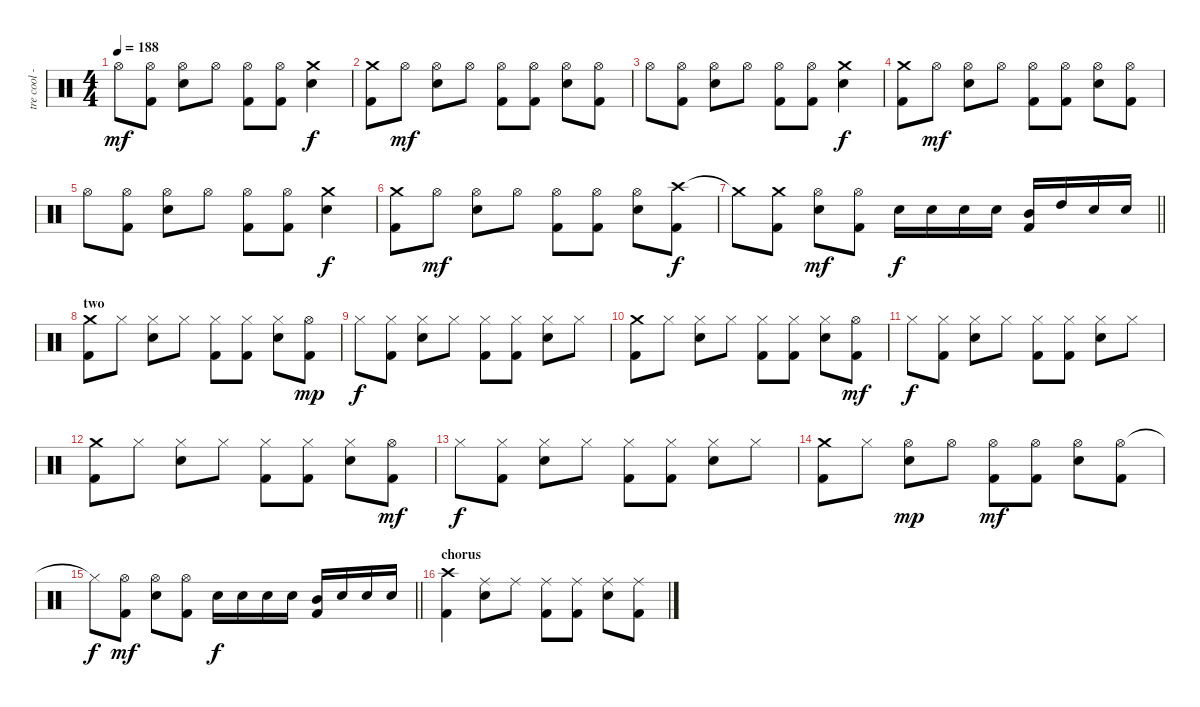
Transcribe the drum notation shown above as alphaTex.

\track ("tre cool - drums" "tre cool -") {instrument percussion}
\staff {score}
\articulation defaults
\ts (4 4)
\tempo 188
\clef neutral
\ks c "Hi-Hat (open)".8{dy mf}
("Hi-Hat (open)" "Kick (hit) 2").8 ("Hi-Hat (open)" "Electric Snare (hit)").8 "Hi-Hat (open)".8 ("Hi-Hat (open)" "Kick (hit) 2").8 ("Hi-Hat (open)" "Kick (hit) 2").8 ("Crash medium (hit)" "Electric Snare (hit)").4{dy f} |
("Crash medium (hit)" "Kick (hit) 2").8 "Hi-Hat (open)".8{dy mf} ("Hi-Hat (open)" "Electric Snare (hit)").8 "Hi-Hat (open)".8 ("Hi-Hat (open)" "Kick (hit) 2").8 ("Hi-Hat (open)" "Kick (hit) 2").8 ("Hi-Hat (open)" "Electric Snare (hit)").8 ("Hi-Hat (open)" "Kick (hit) 2").8 |
"Hi-Hat (open)".8 ("Hi-Hat (open)" "Kick (hit) 2").8 ("Hi-Hat (open)" "Electric Snare (hit)").8 "Hi-Hat (open)".8 ("Hi-Hat (open)" "Kick (hit) 2").8 ("Hi-Hat (open)" "Kick (hit) 2").8 ("Crash medium (hit)" "Electric Snare (hit)").4{dy f} |
("Crash medium (hit)" "Kick (hit) 2").8 "Hi-Hat (open)".8{dy mf} ("Hi-Hat (open)" "Electric Snare (hit)").8 "Hi-Hat (open)".8 ("Hi-Hat (open)" "Kick (hit) 2").8 ("Hi-Hat (open)" "Kick (hit) 2").8 ("Hi-Hat (open)" "Electric Snare (hit)").8 ("Hi-Hat (open)" "Kick (hit) 2").8 |
"Hi-Hat (open)".8 ("Hi-Hat (open)" "Kick (hit) 2").8 ("Hi-Hat (open)" "Electric Snare (hit)").8 "Hi-Hat (open)".8 ("Hi-Hat (open)" "Kick (hit) 2").8 ("Hi-Hat (open)" "Kick (hit) 2").8 ("Crash medium (hit)" "Electric Snare (hit)").4{dy f} |
("Crash medium (hit)" "Kick (hit) 2").8 "Hi-Hat (open)".8{dy mf} ("Hi-Hat (open)" "Electric Snare (hit)").8 "Hi-Hat (open)".8 ("Hi-Hat (open)" "Kick (hit) 2").8 ("Hi-Hat (open)" "Kick (hit) 2").8 ("Hi-Hat (open)" "Electric Snare (hit)").8 ("Crash high (hit)" "Kick (hit) 2").8{dy f} |
\barLineRight lightlight "Crash medium (hit)"{t}.8
("Crash medium (hit)" "Kick (hit) 2").8 ("Hi-Hat (open)" "Electric Snare (hit)").8{dy mf} ("Hi-Hat (open)" "Kick (hit) 2").8 "Electric Snare (hit)".16{dy f} "Electric Snare (hit)".16 "Electric Snare (hit)".16 "Electric Snare (hit)".16 ("Mid Tom (hit)" "Kick (hit) 2").16 "High Tom (hit)".16 "Electric Snare (hit)".16 "Electric Snare (hit)".16 |
\section ("" "two")
("Crash medium (hit)" "Kick (hit) 2").8 "Hi-Hat (closed)".8 ("Hi-Hat (closed)" "Electric Snare (hit)").8 "Hi-Hat (closed)".8 ("Hi-Hat (closed)" "Kick (hit) 2").8 ("Hi-Hat (closed)" "Kick (hit) 2").8 ("Hi-Hat (closed)" "Electric Snare (hit)").8 ("Hi-Hat (open)" "Kick (hit) 2").8{dy mp} |
"Hi-Hat (closed)".8{dy f} ("Hi-Hat (closed)" "Kick (hit) 2").8 ("Hi-Hat (closed)" "Electric Snare (hit)").8 "Hi-Hat (closed)".8 ("Hi-Hat (closed)" "Kick (hit) 2").8 ("Hi-Hat (closed)" "Kick (hit) 2").8 ("Hi-Hat (closed)" "Electric Snare (hit)").8 "Hi-Hat (closed)".8 |
("Crash medium (hit)" "Kick (hit) 2").8 "Hi-Hat (closed)".8 ("Hi-Hat (closed)" "Electric Snare (hit)").8 "Hi-Hat (closed)".8 ("Hi-Hat (closed)" "Kick (hit) 2").8 ("Hi-Hat (closed)" "Kick (hit) 2").8 ("Hi-Hat (closed)" "Electric Snare (hit)").8 ("Hi-Hat (open)" "Kick (hit) 2").8{dy mf} |
"Hi-Hat (closed)".8{dy f} ("Hi-Hat (closed)" "Kick (hit) 2").8 ("Hi-Hat (closed)" "Electric Snare (hit)").8 "Hi-Hat (closed)".8 ("Hi-Hat (closed)" "Kick (hit) 2").8 ("Hi-Hat (closed)" "Kick (hit) 2").8 ("Hi-Hat (closed)" "Electric Snare (hit)").8 "Hi-Hat (closed)".8 |
("Crash medium (hit)" "Kick (hit) 2").8 "Hi-Hat (closed)".8 ("Hi-Hat (closed)" "Electric Snare (hit)").8 "Hi-Hat (closed)".8 ("Hi-Hat (closed)" "Kick (hit) 2").8 ("Hi-Hat (closed)" "Kick (hit) 2").8 ("Hi-Hat (closed)" "Electric Snare (hit)").8 ("Hi-Hat (open)" "Kick (hit) 2").8{dy mf} |
"Hi-Hat (closed)".8{dy f} ("Hi-Hat (closed)" "Kick (hit) 2").8 ("Hi-Hat (closed)" "Electric Snare (hit)").8 "Hi-Hat (closed)".8 ("Hi-Hat (closed)" "Kick (hit) 2").8 ("Hi-Hat (closed)" "Kick (hit) 2").8 ("Hi-Hat (closed)" "Electric Snare (hit)").8 "Hi-Hat (closed)".8 |
("Crash medium (hit)" "Kick (hit) 2").8 "Hi-Hat (closed)".8 ("Hi-Hat (open)" "Electric Snare (hit)").8{dy mp} "Hi-Hat (open)".8 ("Hi-Hat (open)" "Kick (hit) 2").8{dy mf} ("Hi-Hat (open)" "Kick (hit) 2").8 ("Hi-Hat (open)" "Electric Snare (hit)").8 ("Hi-Hat (open)" "Kick (hit) 2").8 |
\barLineRight lightlight "Hi-Hat (closed)"{t}.8{dy f}
("Hi-Hat (open)" "Kick (hit) 2").8{dy mf} ("Hi-Hat (open)" "Electric Snare (hit)").8 ("Hi-Hat (open)" "Kick (hit) 2").8 "Electric Snare (hit)".16{dy f} "Electric Snare (hit)".16 "Electric Snare (hit)".16 "Electric Snare (hit)".16 ("Mid Tom (hit)" "Kick (hit) 2").16 "Electric Snare (hit)".16 "Electric Snare (hit)".16 "Electric Snare (hit)".16 |
\section ("" "chorus")
("Crash high (hit)" "Kick (hit) 2").4 ("Ride (middle)" "Electric Snare (hit)").8 "Ride (middle)".8 ("Ride (middle)" "Kick (hit) 2").8 ("Ride (middle)" "Kick (hit) 2").8 ("Ride (middle)" "Electric Snare (hit)").8 ("Ride (middle)" "Kick (hit) 2").8
